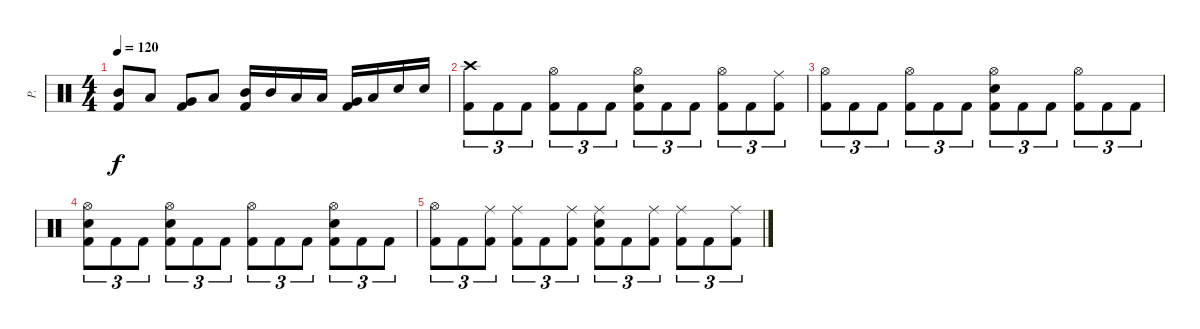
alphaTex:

\track ("P." "P.") {instrument percussion}
\staff {score}
\articulation defaults
\ts (4 4)
\tempo 120
\clef neutral
\ks c
("Mid Tom (hit)" "Kick (hit) 2").8{dy f} "Low Tom (hit)".8 ("Very Low Tom (hit)" "Kick (hit) 2").8 "Low Floor Tom (hit)".8 ("Mid Tom (hit)" "Kick (hit) 2").16 "Mid Tom (hit)".16 "Low Tom (hit)".16 "Low Tom (hit)".16 ("Very Low Tom (hit)" "Kick (hit) 2").16 "Low Floor Tom (hit)".16 "Snare (hit) 2".16 "Snare (hit) 2".16 |
("Crash high (hit)" "Kick (hit) 2").8{tu (3 2)} "Kick (hit) 2".8{tu (3 2)} "Kick (hit) 2".8{tu (3 2)} ("Hi-Hat (open)" "Kick (hit) 2").8{tu (3 2)} "Kick (hit) 2".8{tu (3 2)} "Kick (hit) 2".8{tu (3 2)} ("Hi-Hat (open)" "Snare (hit) 2" "Kick (hit) 2").8{tu (3 2)} "Kick (hit) 2".8{tu (3 2)} "Kick (hit) 2".8{tu (3 2)} ("Hi-Hat (open)" "Kick (hit) 2").8{tu (3 2)} "Kick (hit) 2".8{tu (3 2)} ("Ride (middle)" "Kick (hit) 2").8{tu (3 2)} |
("Hi-Hat (open)" "Kick (hit) 2").8{tu (3 2)} "Kick (hit) 2".8{tu (3 2)} "Kick (hit) 2".8{tu (3 2)} ("Hi-Hat (open)" "Kick (hit) 2").8{tu (3 2)} "Kick (hit) 2".8{tu (3 2)} "Kick (hit) 2".8{tu (3 2)} ("Hi-Hat (open)" "Snare (hit) 2" "Kick (hit) 2").8{tu (3 2)} "Kick (hit) 2".8{tu (3 2)} "Kick (hit) 2".8{tu (3 2)} ("Hi-Hat (open)" "Kick (hit) 2").8{tu (3 2)} "Kick (hit) 2".8{tu (3 2)} "Kick (hit) 2".8{tu (3 2)} |
("Hi-Hat (open)" "Snare (hit) 2" "Kick (hit) 2").8{tu (3 2)} "Kick (hit) 2".8{tu (3 2)} "Kick (hit) 2".8{tu (3 2)} ("Hi-Hat (open)" "Snare (hit) 2" "Kick (hit) 2").8{tu (3 2)} "Kick (hit) 2".8{tu (3 2)} "Kick (hit) 2".8{tu (3 2)} ("Hi-Hat (open)" "Kick (hit) 2").8{tu (3 2)} "Kick (hit) 2".8{tu (3 2)} "Kick (hit) 2".8{tu (3 2)} ("Hi-Hat (open)" "Snare (hit) 2" "Kick (hit) 2").8{tu (3 2)} "Kick (hit) 2".8{tu (3 2)} "Kick (hit) 2".8{tu (3 2)} |
("Hi-Hat (open)" "Kick (hit) 2").8{tu (3 2)} "Kick (hit) 2".8{tu (3 2)} ("Ride (middle)" "Kick (hit) 2").8{tu (3 2)} ("Ride (middle)" "Kick (hit) 2").8{tu (3 2)} "Kick (hit) 2".8{tu (3 2)} ("Ride (middle)" "Kick (hit) 2").8{tu (3 2)} ("Ride (middle)" "Snare (hit) 2" "Kick (hit) 2").8{tu (3 2)} "Kick (hit) 2".8{tu (3 2)} ("Ride (middle)" "Kick (hit) 2").8{tu (3 2)} ("Ride (middle)" "Kick (hit) 2").8{tu (3 2)} "Kick (hit) 2".8{tu (3 2)} ("Ride (middle)" "Kick (hit) 2").8{tu (3 2)}
